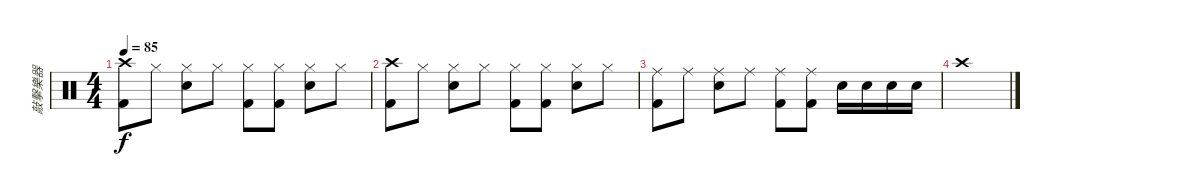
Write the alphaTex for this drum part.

\track ("敲擊樂器" "敲擊樂器") {instrument percussion}
\staff {score}
\articulation defaults
\ts (4 4)
\tempo 85
\clef neutral
\ks c
("Crash high (hit)" "Kick (hit) 2").8{dy f} "Hi-Hat (closed)".8 ("Hi-Hat (closed)" "Snare (hit) 2").8 "Hi-Hat (closed)".8 ("Hi-Hat (closed)" "Kick (hit) 2").8 ("Hi-Hat (closed)" "Kick (hit) 2").8 ("Hi-Hat (closed)" "Snare (hit) 2").8 "Hi-Hat (closed)".8 |
("Crash high (hit)" "Kick (hit) 2").8 "Hi-Hat (closed)".8 ("Hi-Hat (closed)" "Snare (hit) 2").8 "Hi-Hat (closed)".8 ("Hi-Hat (closed)" "Kick (hit) 2").8 ("Hi-Hat (closed)" "Kick (hit) 2").8 ("Hi-Hat (closed)" "Snare (hit) 2").8 "Hi-Hat (closed)".8 |
("Ride (middle)" "Kick (hit) 2").8 "Ride (middle)".8 ("Ride (middle)" "Snare (hit) 2").8 "Ride (middle)".8 ("Ride (middle)" "Kick (hit) 2").8 ("Ride (middle)" "Kick (hit) 2").8 "Snare (hit) 2".16 "Snare (hit) 2".16 "Snare (hit) 2".16 "Snare (hit) 2".16 |
"Crash high (hit)".1
